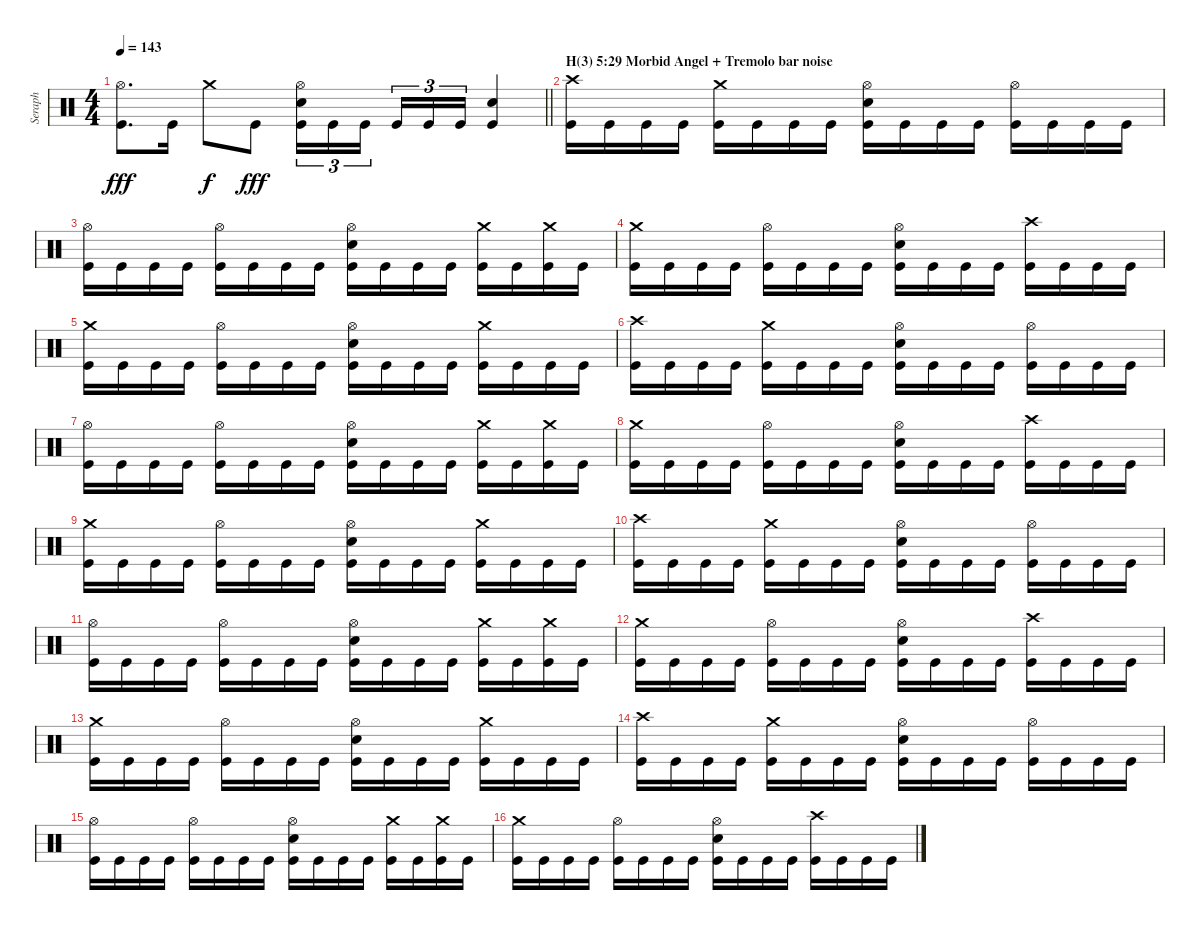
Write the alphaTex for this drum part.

\track ("Seraph" "Seraph") {instrument percussion}
\staff {score}
\articulation defaults
\ts (4 4)
\tempo 143
\clef neutral
\barLineRight lightlight
\ks c
("Hi-Hat (open)" "Kick (hit)").8{d dy fff} "Kick (hit)".16 "Crash medium (hit)".8{dy f} "Kick (hit)".8{dy fff} ("Hi-Hat (open)" "Electric Snare (hit)" "Kick (hit)").16{tu (3 2)} "Kick (hit)".16{tu (3 2)} "Kick (hit)".16{tu (3 2) beam splitsecondary} "Kick (hit)".16{tu (3 2)} "Kick (hit)".16{tu (3 2)} "Kick (hit)".16{tu (3 2)} ("Electric Snare (hit)" "Kick (hit)").4 |
\section ("" "H(3) 5:29 Morbid Angel + Tremolo bar noise")
("Crash high (hit)" "Kick (hit)").16 "Kick (hit)".16 "Kick (hit)".16 "Kick (hit)".16 ("Crash medium (hit)" "Kick (hit)").16 "Kick (hit)".16 "Kick (hit)".16 "Kick (hit)".16 ("Hi-Hat (open)" "Electric Snare (hit)" "Kick (hit)").16 "Kick (hit)".16 "Kick (hit)".16 "Kick (hit)".16 ("Hi-Hat (open)" "Kick (hit)").16 "Kick (hit)".16 "Kick (hit)".16 "Kick (hit)".16 |
("Hi-Hat (open)" "Kick (hit)").16 "Kick (hit)".16 "Kick (hit)".16 "Kick (hit)".16 ("Hi-Hat (open)" "Kick (hit)").16 "Kick (hit)".16 "Kick (hit)".16 "Kick (hit)".16 ("Hi-Hat (open)" "Electric Snare (hit)" "Kick (hit)").16 "Kick (hit)".16 "Kick (hit)".16 "Kick (hit)".16 ("Crash medium (hit)" "Kick (hit)").16 "Kick (hit)".16 ("Crash medium (hit)" "Kick (hit)").16 "Kick (hit)".16 |
("Crash medium (hit)" "Kick (hit)").16 "Kick (hit)".16 "Kick (hit)".16 "Kick (hit)".16 ("Hi-Hat (open)" "Kick (hit)").16 "Kick (hit)".16 "Kick (hit)".16 "Kick (hit)".16 ("Hi-Hat (open)" "Electric Snare (hit)" "Kick (hit)").16 "Kick (hit)".16 "Kick (hit)".16 "Kick (hit)".16 ("Crash high (hit)" "Kick (hit)").16 "Kick (hit)".16 "Kick (hit)".16 "Kick (hit)".16 |
("Crash medium (hit)" "Kick (hit)").16 "Kick (hit)".16 "Kick (hit)".16 "Kick (hit)".16 ("Hi-Hat (open)" "Kick (hit)").16 "Kick (hit)".16 "Kick (hit)".16 "Kick (hit)".16 ("Hi-Hat (open)" "Electric Snare (hit)" "Kick (hit)").16 "Kick (hit)".16 "Kick (hit)".16 "Kick (hit)".16 ("Crash medium (hit)" "Kick (hit)").16 "Kick (hit)".16 "Kick (hit)".16 "Kick (hit)".16 |
("Crash high (hit)" "Kick (hit)").16 "Kick (hit)".16 "Kick (hit)".16 "Kick (hit)".16 ("Crash medium (hit)" "Kick (hit)").16 "Kick (hit)".16 "Kick (hit)".16 "Kick (hit)".16 ("Hi-Hat (open)" "Electric Snare (hit)" "Kick (hit)").16 "Kick (hit)".16 "Kick (hit)".16 "Kick (hit)".16 ("Hi-Hat (open)" "Kick (hit)").16 "Kick (hit)".16 "Kick (hit)".16 "Kick (hit)".16 |
("Hi-Hat (open)" "Kick (hit)").16 "Kick (hit)".16 "Kick (hit)".16 "Kick (hit)".16 ("Hi-Hat (open)" "Kick (hit)").16 "Kick (hit)".16 "Kick (hit)".16 "Kick (hit)".16 ("Hi-Hat (open)" "Electric Snare (hit)" "Kick (hit)").16 "Kick (hit)".16 "Kick (hit)".16 "Kick (hit)".16 ("Crash medium (hit)" "Kick (hit)").16 "Kick (hit)".16 ("Crash medium (hit)" "Kick (hit)").16 "Kick (hit)".16 |
("Crash medium (hit)" "Kick (hit)").16 "Kick (hit)".16 "Kick (hit)".16 "Kick (hit)".16 ("Hi-Hat (open)" "Kick (hit)").16 "Kick (hit)".16 "Kick (hit)".16 "Kick (hit)".16 ("Hi-Hat (open)" "Electric Snare (hit)" "Kick (hit)").16 "Kick (hit)".16 "Kick (hit)".16 "Kick (hit)".16 ("Crash high (hit)" "Kick (hit)").16 "Kick (hit)".16 "Kick (hit)".16 "Kick (hit)".16 |
("Crash medium (hit)" "Kick (hit)").16 "Kick (hit)".16 "Kick (hit)".16 "Kick (hit)".16 ("Hi-Hat (open)" "Kick (hit)").16 "Kick (hit)".16 "Kick (hit)".16 "Kick (hit)".16 ("Hi-Hat (open)" "Electric Snare (hit)" "Kick (hit)").16 "Kick (hit)".16 "Kick (hit)".16 "Kick (hit)".16 ("Crash medium (hit)" "Kick (hit)").16 "Kick (hit)".16 "Kick (hit)".16 "Kick (hit)".16 |
("Crash high (hit)" "Kick (hit)").16 "Kick (hit)".16 "Kick (hit)".16 "Kick (hit)".16 ("Crash medium (hit)" "Kick (hit)").16 "Kick (hit)".16 "Kick (hit)".16 "Kick (hit)".16 ("Hi-Hat (open)" "Electric Snare (hit)" "Kick (hit)").16 "Kick (hit)".16 "Kick (hit)".16 "Kick (hit)".16 ("Hi-Hat (open)" "Kick (hit)").16 "Kick (hit)".16 "Kick (hit)".16 "Kick (hit)".16 |
("Hi-Hat (open)" "Kick (hit)").16 "Kick (hit)".16 "Kick (hit)".16 "Kick (hit)".16 ("Hi-Hat (open)" "Kick (hit)").16 "Kick (hit)".16 "Kick (hit)".16 "Kick (hit)".16 ("Hi-Hat (open)" "Electric Snare (hit)" "Kick (hit)").16 "Kick (hit)".16 "Kick (hit)".16 "Kick (hit)".16 ("Crash medium (hit)" "Kick (hit)").16 "Kick (hit)".16 ("Crash medium (hit)" "Kick (hit)").16 "Kick (hit)".16 |
("Crash medium (hit)" "Kick (hit)").16 "Kick (hit)".16 "Kick (hit)".16 "Kick (hit)".16 ("Hi-Hat (open)" "Kick (hit)").16 "Kick (hit)".16 "Kick (hit)".16 "Kick (hit)".16 ("Hi-Hat (open)" "Electric Snare (hit)" "Kick (hit)").16 "Kick (hit)".16 "Kick (hit)".16 "Kick (hit)".16 ("Crash high (hit)" "Kick (hit)").16 "Kick (hit)".16 "Kick (hit)".16 "Kick (hit)".16 |
("Crash medium (hit)" "Kick (hit)").16 "Kick (hit)".16 "Kick (hit)".16 "Kick (hit)".16 ("Hi-Hat (open)" "Kick (hit)").16 "Kick (hit)".16 "Kick (hit)".16 "Kick (hit)".16 ("Hi-Hat (open)" "Electric Snare (hit)" "Kick (hit)").16 "Kick (hit)".16 "Kick (hit)".16 "Kick (hit)".16 ("Crash medium (hit)" "Kick (hit)").16 "Kick (hit)".16 "Kick (hit)".16 "Kick (hit)".16 |
("Crash high (hit)" "Kick (hit)").16 "Kick (hit)".16 "Kick (hit)".16 "Kick (hit)".16 ("Crash medium (hit)" "Kick (hit)").16 "Kick (hit)".16 "Kick (hit)".16 "Kick (hit)".16 ("Hi-Hat (open)" "Electric Snare (hit)" "Kick (hit)").16 "Kick (hit)".16 "Kick (hit)".16 "Kick (hit)".16 ("Hi-Hat (open)" "Kick (hit)").16 "Kick (hit)".16 "Kick (hit)".16 "Kick (hit)".16 |
("Hi-Hat (open)" "Kick (hit)").16 "Kick (hit)".16 "Kick (hit)".16 "Kick (hit)".16 ("Hi-Hat (open)" "Kick (hit)").16 "Kick (hit)".16 "Kick (hit)".16 "Kick (hit)".16 ("Hi-Hat (open)" "Electric Snare (hit)" "Kick (hit)").16 "Kick (hit)".16 "Kick (hit)".16 "Kick (hit)".16 ("Crash medium (hit)" "Kick (hit)").16 "Kick (hit)".16 ("Crash medium (hit)" "Kick (hit)").16 "Kick (hit)".16 |
("Crash medium (hit)" "Kick (hit)").16 "Kick (hit)".16 "Kick (hit)".16 "Kick (hit)".16 ("Hi-Hat (open)" "Kick (hit)").16 "Kick (hit)".16 "Kick (hit)".16 "Kick (hit)".16 ("Hi-Hat (open)" "Electric Snare (hit)" "Kick (hit)").16 "Kick (hit)".16 "Kick (hit)".16 "Kick (hit)".16 ("Crash high (hit)" "Kick (hit)").16 "Kick (hit)".16 "Kick (hit)".16 "Kick (hit)".16
